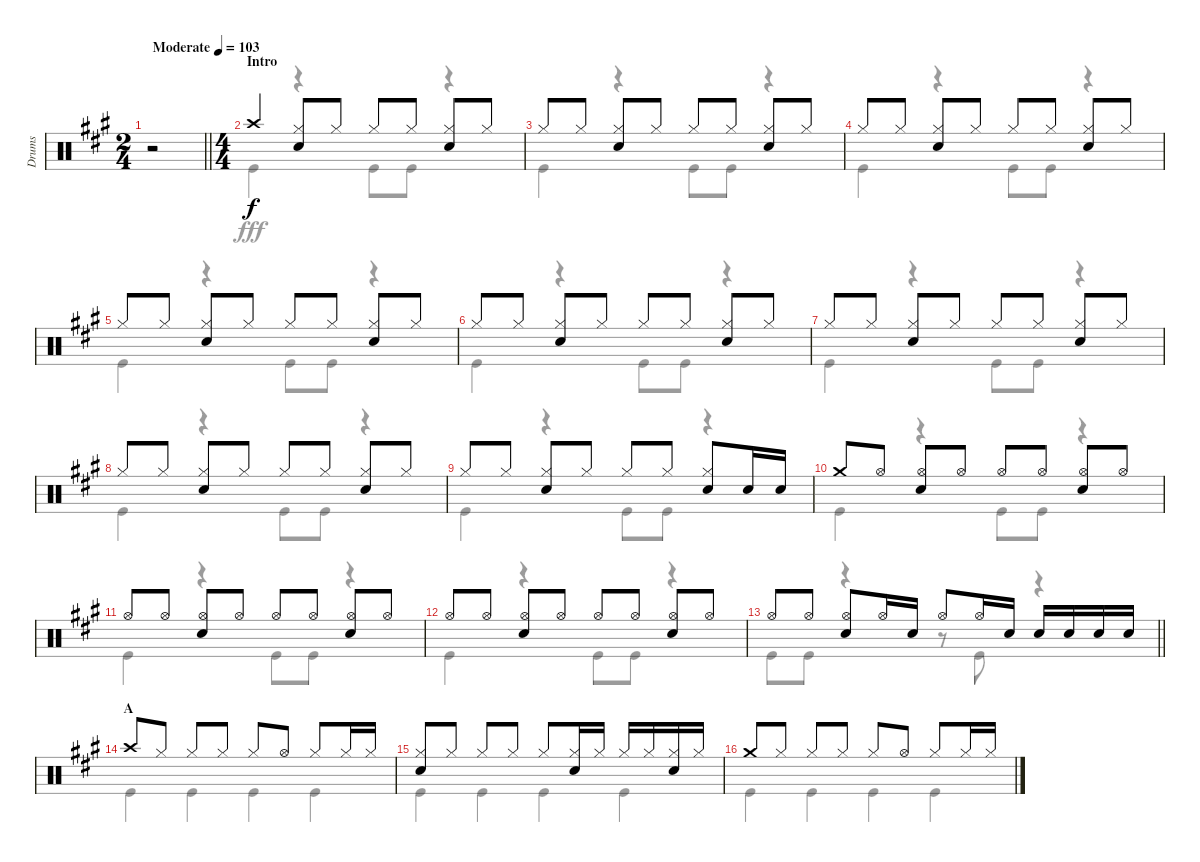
\track ("Drums" "Drums") {instrument percussion}
\staff {score}
\articulation defaults
\voice
\ts (2 4)
\tempo (103 "Moderate")
\clef neutral
\barLineRight lightlight
\ks a
r.2{dy f} |
\ts (4 4)
\section ("" "Intro")
"Crash high (hit)".4 ("Hi-Hat (closed)" "Snare (hit) 2").8 "Hi-Hat (closed)".8 "Hi-Hat (closed)".8 "Hi-Hat (closed)".8 ("Hi-Hat (closed)" "Snare (hit) 2").8 "Hi-Hat (closed)".8 |
"Hi-Hat (closed)".8 "Hi-Hat (closed)".8 ("Hi-Hat (closed)" "Snare (hit) 2").8 "Hi-Hat (closed)".8 "Hi-Hat (closed)".8 "Hi-Hat (closed)".8 ("Hi-Hat (closed)" "Snare (hit) 2").8 "Hi-Hat (closed)".8 |
"Hi-Hat (closed)".8 "Hi-Hat (closed)".8 ("Hi-Hat (closed)" "Snare (hit) 2").8 "Hi-Hat (closed)".8 "Hi-Hat (closed)".8 "Hi-Hat (closed)".8 ("Hi-Hat (closed)" "Snare (hit) 2").8 "Hi-Hat (closed)".8 |
"Hi-Hat (closed)".8 "Hi-Hat (closed)".8 ("Hi-Hat (closed)" "Snare (hit) 2").8 "Hi-Hat (closed)".8 "Hi-Hat (closed)".8 "Hi-Hat (closed)".8 ("Hi-Hat (closed)" "Snare (hit) 2").8 "Hi-Hat (closed)".8 |
"Hi-Hat (closed)".8 "Hi-Hat (closed)".8 ("Hi-Hat (closed)" "Snare (hit) 2").8 "Hi-Hat (closed)".8 "Hi-Hat (closed)".8 "Hi-Hat (closed)".8 ("Hi-Hat (closed)" "Snare (hit) 2").8 "Hi-Hat (closed)".8 |
"Hi-Hat (closed)".8 "Hi-Hat (closed)".8 ("Hi-Hat (closed)" "Snare (hit) 2").8 "Hi-Hat (closed)".8 "Hi-Hat (closed)".8 "Hi-Hat (closed)".8 ("Hi-Hat (closed)" "Snare (hit) 2").8 "Hi-Hat (closed)".8 |
"Hi-Hat (closed)".8 "Hi-Hat (closed)".8 ("Hi-Hat (closed)" "Snare (hit) 2").8 "Hi-Hat (closed)".8 "Hi-Hat (closed)".8 "Hi-Hat (closed)".8 ("Hi-Hat (closed)" "Snare (hit) 2").8 "Hi-Hat (closed)".8 |
"Hi-Hat (closed)".8 "Hi-Hat (closed)".8 ("Hi-Hat (closed)" "Snare (hit) 2").8 "Hi-Hat (closed)".8 "Hi-Hat (closed)".8 "Hi-Hat (closed)".8 ("Hi-Hat (closed)" "Snare (hit) 2").8 "Snare (hit) 2".16 "Snare (hit) 2".16 |
"Crash medium (hit)".8 "Hi-Hat (open)".8 ("Hi-Hat (open)" "Snare (hit) 2").8 "Hi-Hat (open)".8 "Hi-Hat (open)".8 "Hi-Hat (open)".8 ("Hi-Hat (open)" "Snare (hit) 2").8 "Hi-Hat (open)".8 |
"Hi-Hat (open)".8 "Hi-Hat (open)".8 ("Hi-Hat (open)" "Snare (hit) 2").8 "Hi-Hat (open)".8 "Hi-Hat (open)".8 "Hi-Hat (open)".8 ("Hi-Hat (open)" "Snare (hit) 2").8 "Hi-Hat (open)".8 |
"Hi-Hat (open)".8 "Hi-Hat (open)".8 ("Hi-Hat (open)" "Snare (hit) 2").8 "Hi-Hat (open)".8 "Hi-Hat (open)".8 "Hi-Hat (open)".8 ("Hi-Hat (open)" "Snare (hit) 2").8 "Hi-Hat (open)".8 |
\barLineRight lightlight "Hi-Hat (open)".8 "Hi-Hat (open)".8
("Hi-Hat (open)" "Snare (hit) 2").8 "Hi-Hat (open)".16 "Snare (hit) 2".16 "Hi-Hat (open)".8 "Hi-Hat (open)".16 "Snare (hit) 2".16 "Snare (hit) 2".16 "Snare (hit) 2".16 "Snare (hit) 2".16 "Snare (hit) 2".16 |
\section ("" "A")
"Crash high (hit)".8 "Hi-Hat (closed)".8 "Hi-Hat (closed)".8 "Hi-Hat (closed)".8 "Hi-Hat (closed)".8 "Hi-Hat (open)".8 "Hi-Hat (closed)".8 "Hi-Hat (closed)".16 "Hi-Hat (closed)".16 |
("Hi-Hat (closed)" "Snare (hit) 2").8 "Hi-Hat (closed)".8 "Hi-Hat (closed)".8 "Hi-Hat (closed)".8 "Hi-Hat (closed)".8 ("Hi-Hat (closed)" "Snare (hit) 2").16 "Hi-Hat (closed)".16 "Hi-Hat (closed)".16 "Hi-Hat (closed)".16 ("Hi-Hat (closed)" "Snare (hit) 2").16 "Hi-Hat (closed)".16 |
"Crash medium (hit)".8 "Hi-Hat (closed)".8 "Hi-Hat (closed)".8 "Hi-Hat (closed)".8 "Hi-Hat (closed)".8 "Hi-Hat (open)".8 "Hi-Hat (closed)".8 "Hi-Hat (closed)".16 "Hi-Hat (closed)".16
\voice
\clef neutral
\ottava regular
\simile none
\barLineRight lightlight
\ks a
r.2{dy fff} |
"Kick (hit)".4 r.4 "Kick (hit)".8 "Kick (hit)".8 r.4 |
"Kick (hit)".4 r.4 "Kick (hit)".8 "Kick (hit)".8 r.4 |
"Kick (hit)".4 r.4 "Kick (hit)".8 "Kick (hit)".8 r.4 |
"Kick (hit)".4 r.4 "Kick (hit)".8 "Kick (hit)".8 r.4 |
"Kick (hit)".4 r.4 "Kick (hit)".8 "Kick (hit)".8 r.4 |
"Kick (hit)".4 r.4 "Kick (hit)".8 "Kick (hit)".8 r.4 |
"Kick (hit)".4 r.4 "Kick (hit)".8 "Kick (hit)".8 r.4 |
"Kick (hit)".4 r.4 "Kick (hit)".8 "Kick (hit)".8 r.4 |
"Kick (hit)".4 r.4 "Kick (hit)".8 "Kick (hit)".8 r.4 |
"Kick (hit)".4 r.4 "Kick (hit)".8 "Kick (hit)".8 r.4 |
"Kick (hit)".4 r.4 "Kick (hit)".8 "Kick (hit)".8 r.4 |
\barLineRight lightlight "Kick (hit)".8 "Kick (hit)".8
r.4 r.8 "Kick (hit)".8 r.4 |
"Kick (hit)".4 "Kick (hit)".4 "Kick (hit)".4 "Kick (hit)".4 |
"Kick (hit)".4 "Kick (hit)".4 "Kick (hit)".4 "Kick (hit)".4 |
"Kick (hit)".4 "Kick (hit)".4 "Kick (hit)".4 "Kick (hit)".4
